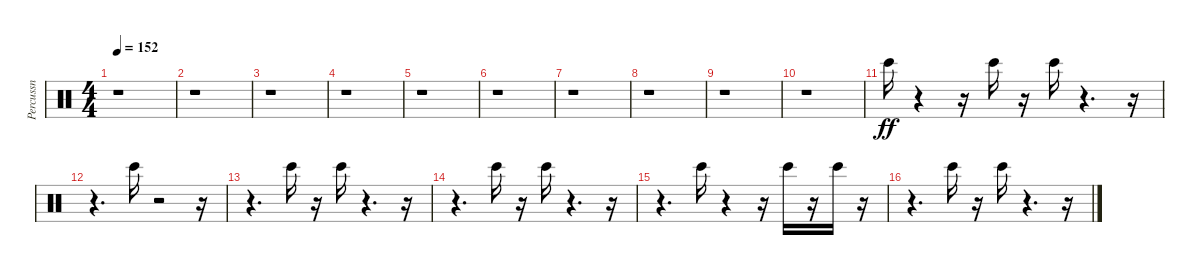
\track ("Percussn" "Percussn") {instrument percussion}
\staff {score}
\articulation defaults
\ts (4 4)
\tempo 152
\clef neutral
\ks c
r.1{dy ff} |
r.1 |
r.1 |
r.1 |
r.1 |
r.1 |
r.1 |
r.1 |
r.1 |
r.1 |
"Bongo High (hit)".16{balance 15} r.4 r.16 "Bongo High (hit)".16{balance 15} r.16 "Bongo High (hit)".16{balance 8} r.4{d} r.16 |
r.4{d} "Bongo High (hit)".16{balance 1} r.2 r.16 |
r.4{d} "Bongo High (hit)".16{balance 10} r.16 "Bongo High (hit)".16{balance 5} r.4{d} r.16 |
r.4{d} "Bongo High (hit)".16{balance 4} r.16 "Bongo High (hit)".16{balance 6} r.4{d} r.16 |
r.4{d} "Bongo High (hit)".16{balance 3} r.4 r.16 "Bongo High (hit)".16{balance 14} r.16 "Bongo High (hit)".16{balance 7} r.16 |
r.4{d} "Bongo High (hit)".16{balance 7} r.16 "Bongo High (hit)".16{balance 15} r.4{d} r.16
